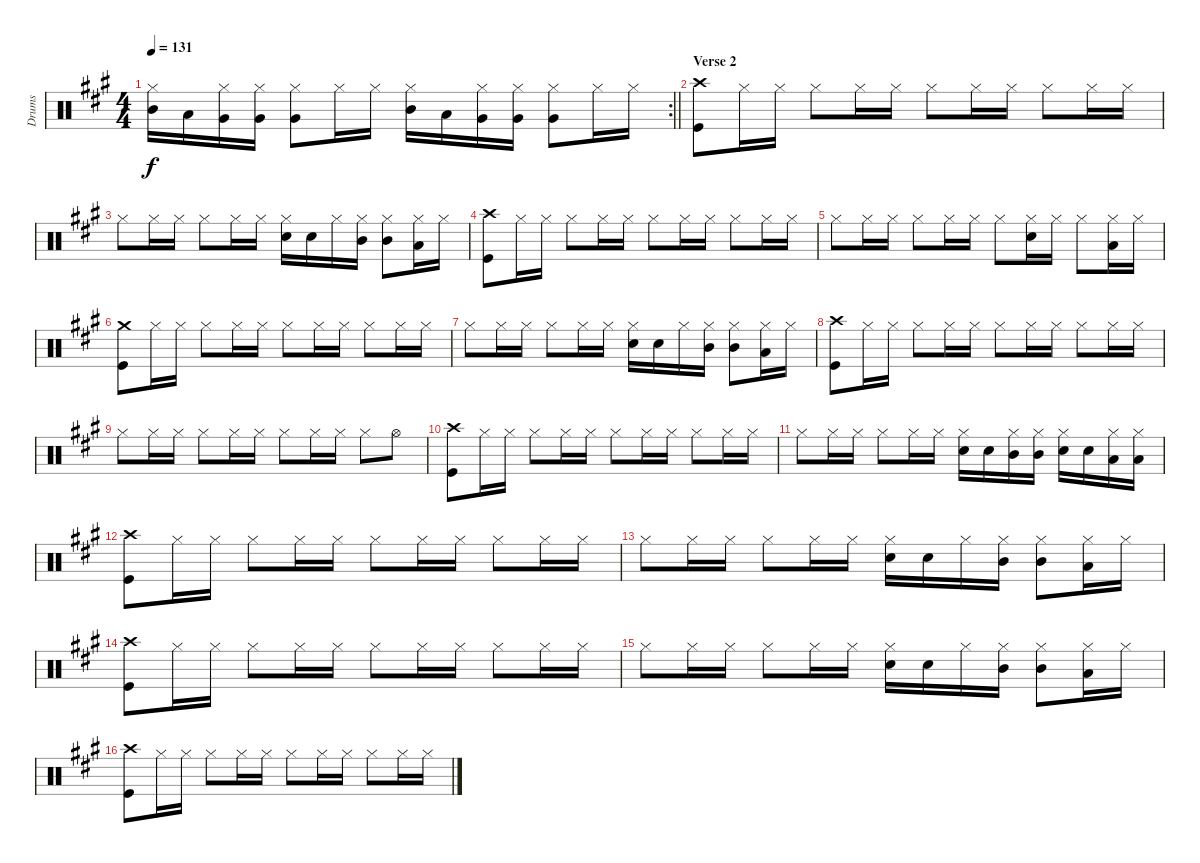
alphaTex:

\track ("Drums" "Drums") {instrument percussion}
\staff {score}
\articulation defaults
\rc 2
\ts (4 4)
\tempo 131
\clef neutral
\barLineRight lightlight
\ks a
("Hi-Hat (closed)" "Mid Tom (hit)").16{dy f} "Low Tom (hit)".16 ("Hi-Hat (closed)" "Very Low Tom (hit)").16 ("Hi-Hat (closed)" "Very Low Tom (hit)").16 ("Hi-Hat (closed)" "Very Low Tom (hit)").8 "Hi-Hat (closed)".16 "Hi-Hat (closed)".16 ("Hi-Hat (closed)" "Mid Tom (hit)").16 "Low Tom (hit)".16 ("Hi-Hat (closed)" "Very Low Tom (hit)").16 ("Hi-Hat (closed)" "Very Low Tom (hit)").16 ("Hi-Hat (closed)" "Very Low Tom (hit)").8 "Hi-Hat (closed)".16 "Hi-Hat (closed)".16 |
\section ("" "Verse 2")
("Crash high (hit)" "Kick (hit)").8 "Hi-Hat (closed)".16 "Hi-Hat (closed)".16 "Hi-Hat (closed)".8 "Hi-Hat (closed)".16 "Hi-Hat (closed)".16 "Hi-Hat (closed)".8 "Hi-Hat (closed)".16 "Hi-Hat (closed)".16 "Hi-Hat (closed)".8 "Hi-Hat (closed)".16 "Hi-Hat (closed)".16 |
"Hi-Hat (closed)".8 "Hi-Hat (closed)".16 "Hi-Hat (closed)".16 "Hi-Hat (closed)".8 "Hi-Hat (closed)".16 "Hi-Hat (closed)".16 ("Hi-Hat (closed)" "Snare (hit) 2").16 "Snare (hit) 2".16 "Hi-Hat (closed)".16 ("Hi-Hat (closed)" "Mid Tom (hit)").16 ("Hi-Hat (closed)" "Mid Tom (hit)").8 ("Hi-Hat (closed)" "Low Tom (hit)").16 "Hi-Hat (closed)".16 |
("Crash high (hit)" "Kick (hit)").8 "Hi-Hat (closed)".16 "Hi-Hat (closed)".16 "Hi-Hat (closed)".8 "Hi-Hat (closed)".16 "Hi-Hat (closed)".16 "Hi-Hat (closed)".8 "Hi-Hat (closed)".16 "Hi-Hat (closed)".16 "Hi-Hat (closed)".8 "Hi-Hat (closed)".16 "Hi-Hat (closed)".16 |
"Hi-Hat (closed)".8 "Hi-Hat (closed)".16 "Hi-Hat (closed)".16 "Hi-Hat (closed)".8 "Hi-Hat (closed)".16 "Hi-Hat (closed)".16 "Hi-Hat (closed)".8 ("Hi-Hat (closed)" "Snare (hit) 2").16 "Hi-Hat (closed)".16 "Hi-Hat (closed)".8 ("Hi-Hat (closed)" "Low Tom (hit)").16 "Hi-Hat (closed)".16 |
("Crash medium (hit)" "Kick (hit)").8 "Hi-Hat (closed)".16 "Hi-Hat (closed)".16 "Hi-Hat (closed)".8 "Hi-Hat (closed)".16 "Hi-Hat (closed)".16 "Hi-Hat (closed)".8 "Hi-Hat (closed)".16 "Hi-Hat (closed)".16 "Hi-Hat (closed)".8 "Hi-Hat (closed)".16 "Hi-Hat (closed)".16 |
"Hi-Hat (closed)".8 "Hi-Hat (closed)".16 "Hi-Hat (closed)".16 "Hi-Hat (closed)".8 "Hi-Hat (closed)".16 "Hi-Hat (closed)".16 ("Hi-Hat (closed)" "Snare (hit) 2").16 "Snare (hit) 2".16 "Hi-Hat (closed)".16 ("Hi-Hat (closed)" "Mid Tom (hit)").16 ("Hi-Hat (closed)" "Mid Tom (hit)").8 ("Hi-Hat (closed)" "Low Tom (hit)").16 "Hi-Hat (closed)".16 |
("Crash high (hit)" "Kick (hit)").8 "Hi-Hat (closed)".16 "Hi-Hat (closed)".16 "Hi-Hat (closed)".8 "Hi-Hat (closed)".16 "Hi-Hat (closed)".16 "Hi-Hat (closed)".8 "Hi-Hat (closed)".16 "Hi-Hat (closed)".16 "Hi-Hat (closed)".8 "Hi-Hat (closed)".16 "Hi-Hat (closed)".16 |
"Hi-Hat (closed)".8 "Hi-Hat (closed)".16 "Hi-Hat (closed)".16 "Hi-Hat (closed)".8 "Hi-Hat (closed)".16 "Hi-Hat (closed)".16 "Hi-Hat (closed)".8 "Hi-Hat (closed)".16 "Hi-Hat (closed)".16 "Hi-Hat (closed)".8 "Hi-Hat (open)".8 |
("Crash high (hit)" "Kick (hit)").8 "Hi-Hat (closed)".16 "Hi-Hat (closed)".16 "Hi-Hat (closed)".8 "Hi-Hat (closed)".16 "Hi-Hat (closed)".16 "Hi-Hat (closed)".8 "Hi-Hat (closed)".16 "Hi-Hat (closed)".16 "Hi-Hat (closed)".8 "Hi-Hat (closed)".16 "Hi-Hat (closed)".16 |
"Hi-Hat (closed)".8 "Hi-Hat (closed)".16 "Hi-Hat (closed)".16 "Hi-Hat (closed)".8 "Hi-Hat (closed)".16 "Hi-Hat (closed)".16 ("Hi-Hat (closed)" "Snare (hit) 2").16 "Snare (hit) 2".16 ("Hi-Hat (closed)" "Mid Tom (hit)").16 ("Hi-Hat (closed)" "Mid Tom (hit)").16 ("Hi-Hat (closed)" "Snare (hit) 2").16 "Snare (hit) 2".16 ("Hi-Hat (closed)" "Low Tom (hit)").16 ("Hi-Hat (closed)" "Low Tom (hit)").16 |
("Crash high (hit)" "Kick (hit)").8 "Hi-Hat (closed)".16 "Hi-Hat (closed)".16 "Hi-Hat (closed)".8 "Hi-Hat (closed)".16 "Hi-Hat (closed)".16 "Hi-Hat (closed)".8 "Hi-Hat (closed)".16 "Hi-Hat (closed)".16 "Hi-Hat (closed)".8 "Hi-Hat (closed)".16 "Hi-Hat (closed)".16 |
"Hi-Hat (closed)".8 "Hi-Hat (closed)".16 "Hi-Hat (closed)".16 "Hi-Hat (closed)".8 "Hi-Hat (closed)".16 "Hi-Hat (closed)".16 ("Hi-Hat (closed)" "Snare (hit) 2").16 "Snare (hit) 2".16 "Hi-Hat (closed)".16 ("Hi-Hat (closed)" "Mid Tom (hit)").16 ("Hi-Hat (closed)" "Mid Tom (hit)").8 ("Hi-Hat (closed)" "Low Tom (hit)").16 "Hi-Hat (closed)".16 |
("Crash high (hit)" "Kick (hit)").8 "Hi-Hat (closed)".16 "Hi-Hat (closed)".16 "Hi-Hat (closed)".8 "Hi-Hat (closed)".16 "Hi-Hat (closed)".16 "Hi-Hat (closed)".8 "Hi-Hat (closed)".16 "Hi-Hat (closed)".16 "Hi-Hat (closed)".8 "Hi-Hat (closed)".16 "Hi-Hat (closed)".16 |
"Hi-Hat (closed)".8 "Hi-Hat (closed)".16 "Hi-Hat (closed)".16 "Hi-Hat (closed)".8 "Hi-Hat (closed)".16 "Hi-Hat (closed)".16 ("Hi-Hat (closed)" "Snare (hit) 2").16 "Snare (hit) 2".16 "Hi-Hat (closed)".16 ("Hi-Hat (closed)" "Mid Tom (hit)").16 ("Hi-Hat (closed)" "Mid Tom (hit)").8 ("Hi-Hat (closed)" "Low Tom (hit)").16 "Hi-Hat (closed)".16 |
("Crash high (hit)" "Kick (hit)").8 "Hi-Hat (closed)".16 "Hi-Hat (closed)".16 "Hi-Hat (closed)".8 "Hi-Hat (closed)".16 "Hi-Hat (closed)".16 "Hi-Hat (closed)".8 "Hi-Hat (closed)".16 "Hi-Hat (closed)".16 "Hi-Hat (closed)".8 "Hi-Hat (closed)".16 "Hi-Hat (closed)".16
